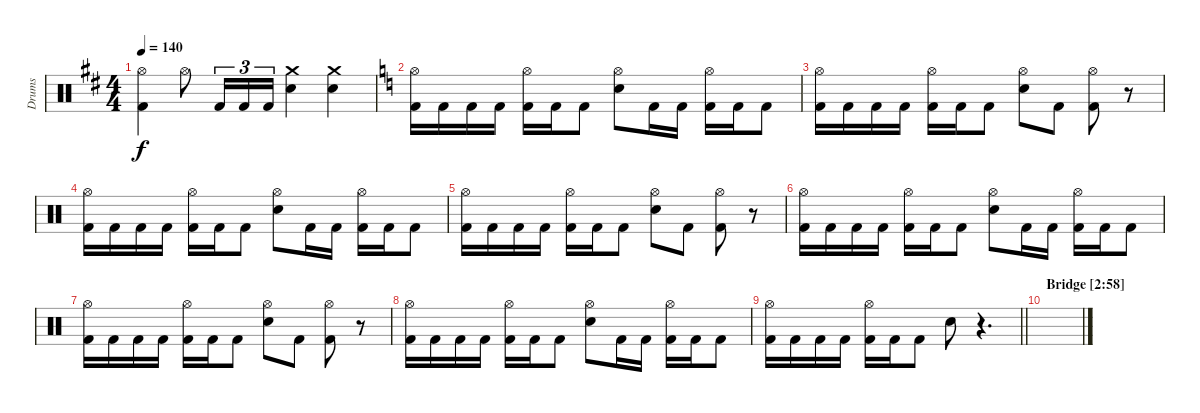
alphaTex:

\track ("Drums" "Drums") {instrument percussion}
\staff {score}
\articulation defaults
\ts (4 4)
\tempo 140
\clef neutral
\ks bminor
("Hi-Hat (open)" "Kick (hit) 2").4{dy f} "Hi-Hat (open)".8 "Kick (hit) 2".16{tu (3 2)} "Kick (hit) 2".16{tu (3 2)} "Kick (hit) 2".16{tu (3 2)} ("Crash medium (hit)" "Snare (hit) 2").4 ("Crash medium (hit)" "Snare (hit) 2").4 |
\ks aminor
("Hi-Hat (open)" "Kick (hit) 2").16 "Kick (hit) 2".16 "Kick (hit) 2".16 "Kick (hit) 2".16 ("Hi-Hat (open)" "Kick (hit) 2").16 "Kick (hit) 2".16 "Kick (hit) 2".8 ("Hi-Hat (open)" "Snare (hit) 2").8 "Kick (hit) 2".16 "Kick (hit) 2".16 ("Hi-Hat (open)" "Kick (hit) 2").16 "Kick (hit) 2".16 "Kick (hit) 2".8 |
("Hi-Hat (open)" "Kick (hit) 2").16 "Kick (hit) 2".16 "Kick (hit) 2".16 "Kick (hit) 2".16 ("Hi-Hat (open)" "Kick (hit) 2").16 "Kick (hit) 2".16 "Kick (hit) 2".8 ("Hi-Hat (open)" "Snare (hit) 2").8 "Kick (hit) 2".8 ("Hi-Hat (open)" "Kick (hit) 2").8 r.8 |
("Hi-Hat (open)" "Kick (hit) 2").16 "Kick (hit) 2".16 "Kick (hit) 2".16 "Kick (hit) 2".16 ("Hi-Hat (open)" "Kick (hit) 2").16 "Kick (hit) 2".16 "Kick (hit) 2".8 ("Hi-Hat (open)" "Snare (hit) 2").8 "Kick (hit) 2".16 "Kick (hit) 2".16 ("Hi-Hat (open)" "Kick (hit) 2").16 "Kick (hit) 2".16 "Kick (hit) 2".8 |
("Hi-Hat (open)" "Kick (hit) 2").16 "Kick (hit) 2".16 "Kick (hit) 2".16 "Kick (hit) 2".16 ("Hi-Hat (open)" "Kick (hit) 2").16 "Kick (hit) 2".16 "Kick (hit) 2".8 ("Hi-Hat (open)" "Snare (hit) 2").8 "Kick (hit) 2".8 ("Hi-Hat (open)" "Kick (hit) 2").8 r.8 |
("Hi-Hat (open)" "Kick (hit) 2").16 "Kick (hit) 2".16 "Kick (hit) 2".16 "Kick (hit) 2".16 ("Hi-Hat (open)" "Kick (hit) 2").16 "Kick (hit) 2".16 "Kick (hit) 2".8 ("Hi-Hat (open)" "Snare (hit) 2").8 "Kick (hit) 2".16 "Kick (hit) 2".16 ("Hi-Hat (open)" "Kick (hit) 2").16 "Kick (hit) 2".16 "Kick (hit) 2".8 |
("Hi-Hat (open)" "Kick (hit) 2").16 "Kick (hit) 2".16 "Kick (hit) 2".16 "Kick (hit) 2".16 ("Hi-Hat (open)" "Kick (hit) 2").16 "Kick (hit) 2".16 "Kick (hit) 2".8 ("Hi-Hat (open)" "Snare (hit) 2").8 "Kick (hit) 2".8 ("Hi-Hat (open)" "Kick (hit) 2").8 r.8 |
("Hi-Hat (open)" "Kick (hit) 2").16 "Kick (hit) 2".16 "Kick (hit) 2".16 "Kick (hit) 2".16 ("Hi-Hat (open)" "Kick (hit) 2").16 "Kick (hit) 2".16 "Kick (hit) 2".8 ("Hi-Hat (open)" "Snare (hit) 2").8 "Kick (hit) 2".16 "Kick (hit) 2".16 ("Hi-Hat (open)" "Kick (hit) 2").16 "Kick (hit) 2".16 "Kick (hit) 2".8 |
\barLineRight lightlight
("Hi-Hat (open)" "Kick (hit) 2").16 "Kick (hit) 2".16 "Kick (hit) 2".16 "Kick (hit) 2".16 ("Hi-Hat (open)" "Kick (hit) 2").16 "Kick (hit) 2".16 "Kick (hit) 2".8 "Snare (hit) 2".8 r.4{d} |
\section ("" "Bridge [2:58]")
